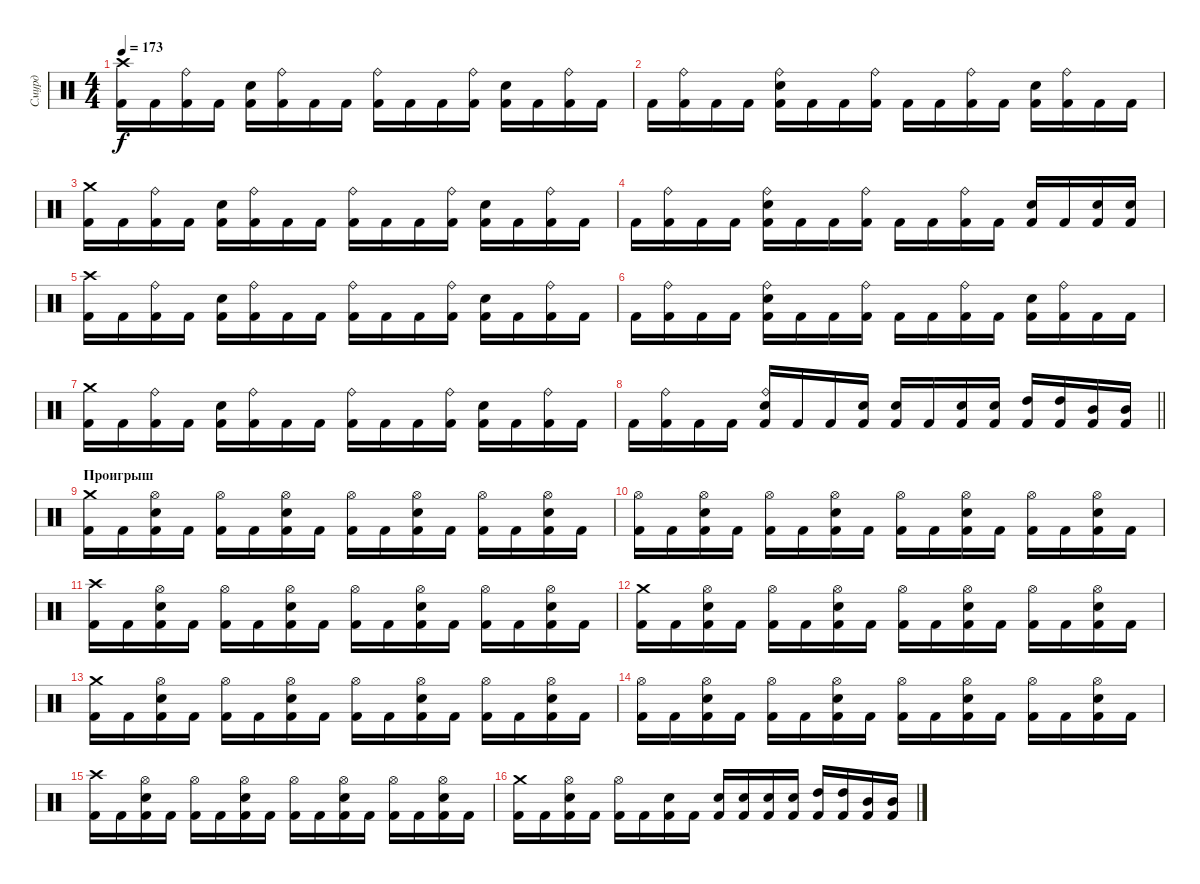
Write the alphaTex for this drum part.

\track ("Смурд" "Смурд") {instrument percussion}
\staff {score}
\articulation defaults
\ts (4 4)
\tempo 173
\clef neutral
\ks c
("Crash high (hit)" "Kick (hit) 2").16{dy f} "Kick (hit) 2".16 ("Ride (bell)" "Kick (hit) 2").16 "Kick (hit) 2".16 ("Electric Snare (hit)" "Kick (hit) 2").16 ("Ride (bell)" "Kick (hit) 2").16 "Kick (hit) 2".16 "Kick (hit) 2".16 ("Ride (bell)" "Kick (hit) 2").16 "Kick (hit) 2".16 "Kick (hit) 2".16 ("Ride (bell)" "Kick (hit) 2").16 ("Electric Snare (hit)" "Kick (hit) 2").16 "Kick (hit) 2".16 ("Ride (bell)" "Kick (hit) 2").16 "Kick (hit) 2".16 |
"Kick (hit) 2".16 ("Ride (bell)" "Kick (hit) 2").16 "Kick (hit) 2".16 "Kick (hit) 2".16 ("Ride (bell)" "Electric Snare (hit)" "Kick (hit) 2").16 "Kick (hit) 2".16 "Kick (hit) 2".16 ("Ride (bell)" "Kick (hit) 2").16 "Kick (hit) 2".16 "Kick (hit) 2".16 ("Ride (bell)" "Kick (hit) 2").16 "Kick (hit) 2".16 ("Electric Snare (hit)" "Kick (hit) 2").16 ("Ride (bell)" "Kick (hit) 2").16 "Kick (hit) 2".16 "Kick (hit) 2".16 |
("Crash medium (hit)" "Kick (hit) 2").16 "Kick (hit) 2".16 ("Ride (bell)" "Kick (hit) 2").16 "Kick (hit) 2".16 ("Electric Snare (hit)" "Kick (hit) 2").16 ("Ride (bell)" "Kick (hit) 2").16 "Kick (hit) 2".16 "Kick (hit) 2".16 ("Ride (bell)" "Kick (hit) 2").16 "Kick (hit) 2".16 "Kick (hit) 2".16 ("Ride (bell)" "Kick (hit) 2").16 ("Electric Snare (hit)" "Kick (hit) 2").16 "Kick (hit) 2".16 ("Ride (bell)" "Kick (hit) 2").16 "Kick (hit) 2".16 |
"Kick (hit) 2".16 ("Ride (bell)" "Kick (hit) 2").16 "Kick (hit) 2".16 "Kick (hit) 2".16 ("Ride (bell)" "Electric Snare (hit)" "Kick (hit) 2").16 "Kick (hit) 2".16 "Kick (hit) 2".16 ("Ride (bell)" "Kick (hit) 2").16 "Kick (hit) 2".16 "Kick (hit) 2".16 ("Ride (bell)" "Kick (hit) 2").16 "Kick (hit) 2".16 ("Electric Snare (hit)" "Kick (hit) 2").16 "Kick (hit) 2".16 ("Electric Snare (hit)" "Kick (hit) 2").16 ("Electric Snare (hit)" "Kick (hit) 2").16 |
("Crash high (hit)" "Kick (hit) 2").16 "Kick (hit) 2".16 ("Ride (bell)" "Kick (hit) 2").16 "Kick (hit) 2".16 ("Electric Snare (hit)" "Kick (hit) 2").16 ("Ride (bell)" "Kick (hit) 2").16 "Kick (hit) 2".16 "Kick (hit) 2".16 ("Ride (bell)" "Kick (hit) 2").16 "Kick (hit) 2".16 "Kick (hit) 2".16 ("Ride (bell)" "Kick (hit) 2").16 ("Electric Snare (hit)" "Kick (hit) 2").16 "Kick (hit) 2".16 ("Ride (bell)" "Kick (hit) 2").16 "Kick (hit) 2".16 |
"Kick (hit) 2".16 ("Ride (bell)" "Kick (hit) 2").16 "Kick (hit) 2".16 "Kick (hit) 2".16 ("Ride (bell)" "Electric Snare (hit)" "Kick (hit) 2").16 "Kick (hit) 2".16 "Kick (hit) 2".16 ("Ride (bell)" "Kick (hit) 2").16 "Kick (hit) 2".16 "Kick (hit) 2".16 ("Ride (bell)" "Kick (hit) 2").16 "Kick (hit) 2".16 ("Electric Snare (hit)" "Kick (hit) 2").16 ("Ride (bell)" "Kick (hit) 2").16 "Kick (hit) 2".16 "Kick (hit) 2".16 |
("Crash medium (hit)" "Kick (hit) 2").16 "Kick (hit) 2".16 ("Ride (bell)" "Kick (hit) 2").16 "Kick (hit) 2".16 ("Electric Snare (hit)" "Kick (hit) 2").16 ("Ride (bell)" "Kick (hit) 2").16 "Kick (hit) 2".16 "Kick (hit) 2".16 ("Ride (bell)" "Kick (hit) 2").16 "Kick (hit) 2".16 "Kick (hit) 2".16 ("Ride (bell)" "Kick (hit) 2").16 ("Electric Snare (hit)" "Kick (hit) 2").16 "Kick (hit) 2".16 ("Ride (bell)" "Kick (hit) 2").16 "Kick (hit) 2".16 |
\barLineRight lightlight "Kick (hit) 2".16
("Ride (bell)" "Kick (hit) 2").16 "Kick (hit) 2".16 "Kick (hit) 2".16 ("Ride (bell)" "Electric Snare (hit)" "Kick (hit) 2").16 "Kick (hit) 2".16 "Kick (hit) 2".16 ("Electric Snare (hit)" "Kick (hit) 2").16 ("Electric Snare (hit)" "Kick (hit) 2").16 "Kick (hit) 2".16 ("Electric Snare (hit)" "Kick (hit) 2").16 ("Electric Snare (hit)" "Kick (hit) 2").16 ("High Tom (hit)" "Kick (hit) 2").16 ("High Tom (hit)" "Kick (hit) 2").16 ("Mid Tom (hit)" "Kick (hit) 2").16 ("Mid Tom (hit)" "Kick (hit) 2").16 |
\section ("" "Проигрыш")
("Crash medium (hit)" "Kick (hit) 2").16 "Kick (hit) 2".16 ("Hi-Hat (open)" "Electric Snare (hit)" "Kick (hit) 2").16 "Kick (hit) 2".16 ("Hi-Hat (open)" "Kick (hit) 2").16 "Kick (hit) 2".16 ("Hi-Hat (open)" "Electric Snare (hit)" "Kick (hit) 2").16 "Kick (hit) 2".16 ("Hi-Hat (open)" "Kick (hit) 2").16 "Kick (hit) 2".16 ("Hi-Hat (open)" "Electric Snare (hit)" "Kick (hit) 2").16 "Kick (hit) 2".16 ("Hi-Hat (open)" "Kick (hit) 2").16 "Kick (hit) 2".16 ("Hi-Hat (open)" "Electric Snare (hit)" "Kick (hit) 2").16 "Kick (hit) 2".16 |
("Hi-Hat (open)" "Kick (hit) 2").16 "Kick (hit) 2".16 ("Hi-Hat (open)" "Electric Snare (hit)" "Kick (hit) 2").16 "Kick (hit) 2".16 ("Hi-Hat (open)" "Kick (hit) 2").16 "Kick (hit) 2".16 ("Hi-Hat (open)" "Electric Snare (hit)" "Kick (hit) 2").16 "Kick (hit) 2".16 ("Hi-Hat (open)" "Kick (hit) 2").16 "Kick (hit) 2".16 ("Hi-Hat (open)" "Electric Snare (hit)" "Kick (hit) 2").16 "Kick (hit) 2".16 ("Hi-Hat (open)" "Kick (hit) 2").16 "Kick (hit) 2".16 ("Hi-Hat (open)" "Electric Snare (hit)" "Kick (hit) 2").16 "Kick (hit) 2".16 |
("Crash high (hit)" "Kick (hit) 2").16 "Kick (hit) 2".16 ("Hi-Hat (open)" "Electric Snare (hit)" "Kick (hit) 2").16 "Kick (hit) 2".16 ("Hi-Hat (open)" "Kick (hit) 2").16 "Kick (hit) 2".16 ("Hi-Hat (open)" "Electric Snare (hit)" "Kick (hit) 2").16 "Kick (hit) 2".16 ("Hi-Hat (open)" "Kick (hit) 2").16 "Kick (hit) 2".16 ("Hi-Hat (open)" "Electric Snare (hit)" "Kick (hit) 2").16 "Kick (hit) 2".16 ("Hi-Hat (open)" "Kick (hit) 2").16 "Kick (hit) 2".16 ("Hi-Hat (open)" "Electric Snare (hit)" "Kick (hit) 2").16 "Kick (hit) 2".16 |
("Crash medium (hit)" "Kick (hit) 2").16 "Kick (hit) 2".16 ("Hi-Hat (open)" "Electric Snare (hit)" "Kick (hit) 2").16 "Kick (hit) 2".16 ("Hi-Hat (open)" "Kick (hit) 2").16 "Kick (hit) 2".16 ("Hi-Hat (open)" "Electric Snare (hit)" "Kick (hit) 2").16 "Kick (hit) 2".16 ("Hi-Hat (open)" "Kick (hit) 2").16 "Kick (hit) 2".16 ("Hi-Hat (open)" "Electric Snare (hit)" "Kick (hit) 2").16 "Kick (hit) 2".16 ("Hi-Hat (open)" "Kick (hit) 2").16 "Kick (hit) 2".16 ("Hi-Hat (open)" "Electric Snare (hit)" "Kick (hit) 2").16 "Kick (hit) 2".16 |
("Crash medium (hit)" "Kick (hit) 2").16 "Kick (hit) 2".16 ("Hi-Hat (open)" "Electric Snare (hit)" "Kick (hit) 2").16 "Kick (hit) 2".16 ("Hi-Hat (open)" "Kick (hit) 2").16 "Kick (hit) 2".16 ("Hi-Hat (open)" "Electric Snare (hit)" "Kick (hit) 2").16 "Kick (hit) 2".16 ("Hi-Hat (open)" "Kick (hit) 2").16 "Kick (hit) 2".16 ("Hi-Hat (open)" "Electric Snare (hit)" "Kick (hit) 2").16 "Kick (hit) 2".16 ("Hi-Hat (open)" "Kick (hit) 2").16 "Kick (hit) 2".16 ("Hi-Hat (open)" "Electric Snare (hit)" "Kick (hit) 2").16 "Kick (hit) 2".16 |
("Hi-Hat (open)" "Kick (hit) 2").16 "Kick (hit) 2".16 ("Hi-Hat (open)" "Electric Snare (hit)" "Kick (hit) 2").16 "Kick (hit) 2".16 ("Hi-Hat (open)" "Kick (hit) 2").16 "Kick (hit) 2".16 ("Hi-Hat (open)" "Electric Snare (hit)" "Kick (hit) 2").16 "Kick (hit) 2".16 ("Hi-Hat (open)" "Kick (hit) 2").16 "Kick (hit) 2".16 ("Hi-Hat (open)" "Electric Snare (hit)" "Kick (hit) 2").16 "Kick (hit) 2".16 ("Hi-Hat (open)" "Kick (hit) 2").16 "Kick (hit) 2".16 ("Hi-Hat (open)" "Electric Snare (hit)" "Kick (hit) 2").16 "Kick (hit) 2".16 |
("Crash high (hit)" "Kick (hit) 2").16 "Kick (hit) 2".16 ("Hi-Hat (open)" "Electric Snare (hit)" "Kick (hit) 2").16 "Kick (hit) 2".16 ("Hi-Hat (open)" "Kick (hit) 2").16 "Kick (hit) 2".16 ("Hi-Hat (open)" "Electric Snare (hit)" "Kick (hit) 2").16 "Kick (hit) 2".16 ("Hi-Hat (open)" "Kick (hit) 2").16 "Kick (hit) 2".16 ("Hi-Hat (open)" "Electric Snare (hit)" "Kick (hit) 2").16 "Kick (hit) 2".16 ("Hi-Hat (open)" "Kick (hit) 2").16 "Kick (hit) 2".16 ("Hi-Hat (open)" "Electric Snare (hit)" "Kick (hit) 2").16 "Kick (hit) 2".16 |
("Crash medium (hit)" "Kick (hit) 2").16 "Kick (hit) 2".16 ("Hi-Hat (open)" "Electric Snare (hit)" "Kick (hit) 2").16 "Kick (hit) 2".16 ("Hi-Hat (open)" "Kick (hit) 2").16 "Kick (hit) 2".16 ("Electric Snare (hit)" "Kick (hit) 2").16 "Kick (hit) 2".16 ("Electric Snare (hit)" "Kick (hit) 2").16 ("Electric Snare (hit)" "Kick (hit) 2").16 ("Electric Snare (hit)" "Kick (hit) 2").16 ("Electric Snare (hit)" "Kick (hit) 2").16 ("High Tom (hit)" "Kick (hit) 2").16 ("High Tom (hit)" "Kick (hit) 2").16 ("Mid Tom (hit)" "Kick (hit) 2").16 ("Mid Tom (hit)" "Kick (hit) 2").16
